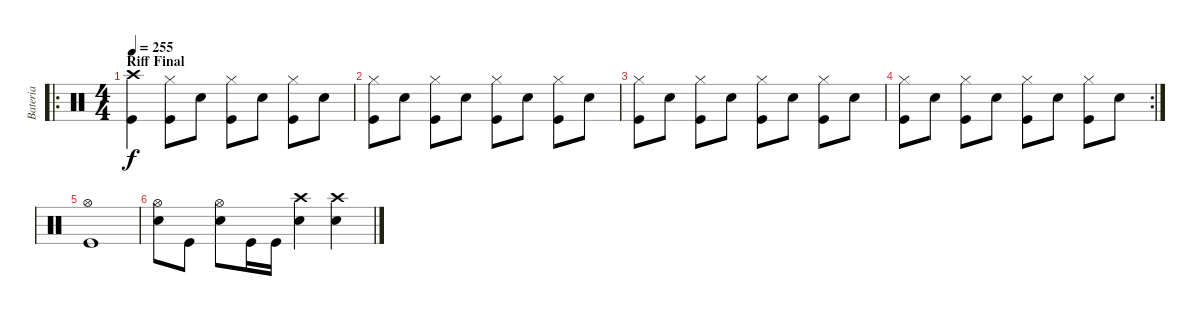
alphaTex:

\track ("Bateria" "Bateria") {instrument percussion}
\staff {score}
\articulation defaults
\ro
\ts (4 4)
\section ("" "Riff Final")
\tempo 255
\clef neutral
\ks c
("Kick (hit)" "Crash high (hit)").4{dy f} ("Kick (hit)" "Hi-Hat (closed)").8 "Electric Snare (hit)".8 ("Kick (hit)" "Hi-Hat (closed)").8 "Electric Snare (hit)".8 ("Kick (hit)" "Hi-Hat (closed)").8 "Electric Snare (hit)".8 |
("Kick (hit)" "Hi-Hat (closed)").8 "Electric Snare (hit)".8 ("Kick (hit)" "Hi-Hat (closed)").8 "Electric Snare (hit)".8 ("Kick (hit)" "Hi-Hat (closed)").8 "Electric Snare (hit)".8 ("Kick (hit)" "Hi-Hat (closed)").8 "Electric Snare (hit)".8 |
("Kick (hit)" "Hi-Hat (closed)").8 "Electric Snare (hit)".8 ("Kick (hit)" "Hi-Hat (closed)").8 "Electric Snare (hit)".8 ("Kick (hit)" "Hi-Hat (closed)").8 "Electric Snare (hit)".8 ("Kick (hit)" "Hi-Hat (closed)").8 "Electric Snare (hit)".8 |
\rc 2
("Kick (hit)" "Hi-Hat (closed)").8 "Electric Snare (hit)".8 ("Kick (hit)" "Hi-Hat (closed)").8 "Electric Snare (hit)".8 ("Kick (hit)" "Hi-Hat (closed)").8 "Electric Snare (hit)".8 ("Kick (hit)" "Hi-Hat (closed)").8 "Electric Snare (hit)".8 |
("Kick (hit)" "Hi-Hat (open)").1 |
("Electric Snare (hit)" "Hi-Hat (open)").8 "Kick (hit)".8 ("Electric Snare (hit)" "Hi-Hat (open)").8 "Kick (hit)".16 "Kick (hit)".16 ("Electric Snare (hit)" "Crash high (hit)").4 ("Electric Snare (hit)" "Crash high (hit)").4
